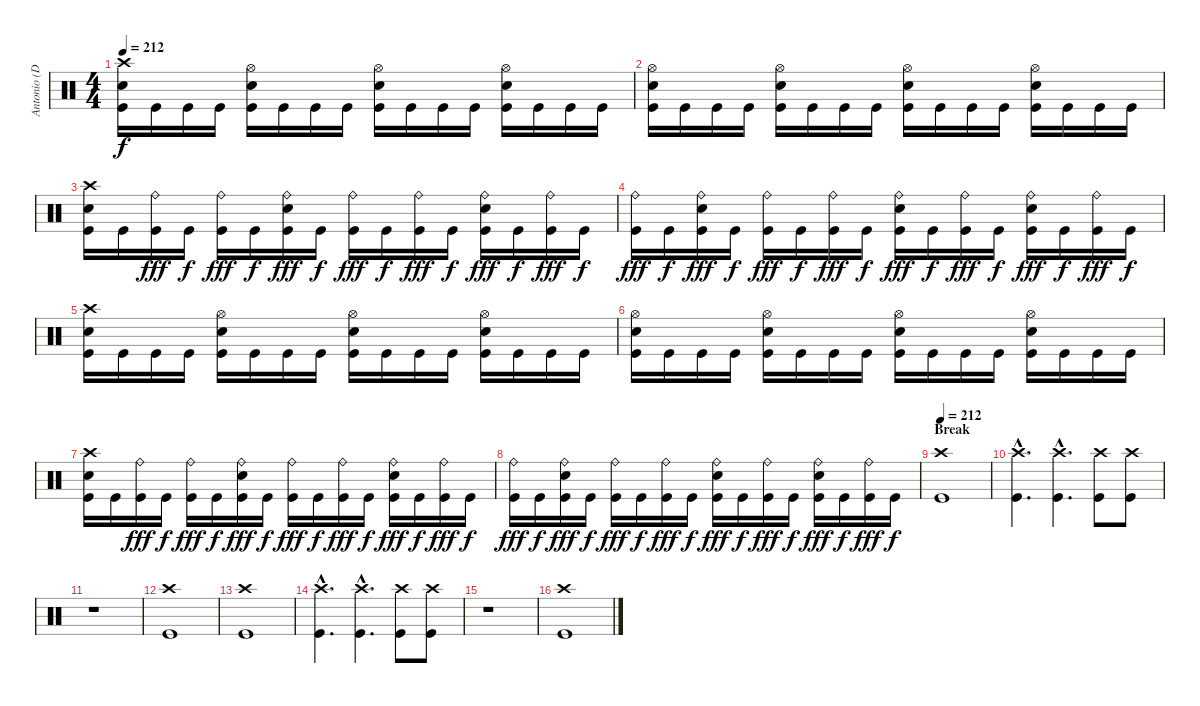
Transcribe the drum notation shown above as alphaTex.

\track ("Antonio (Drums)" "Antonio (D") {instrument percussion}
\staff {score}
\articulation defaults
\ts (4 4)
\tempo 212
\clef neutral
\ks c
("Crash high (hit)" "Electric Snare (hit)" "Kick (hit)").16{dy f} "Kick (hit)".16 "Kick (hit)".16 "Kick (hit)".16 ("Hi-Hat (open)" "Electric Snare (hit)" "Kick (hit)").16 "Kick (hit)".16 "Kick (hit)".16 "Kick (hit)".16 ("Hi-Hat (open)" "Electric Snare (hit)" "Kick (hit)").16 "Kick (hit)".16 "Kick (hit)".16 "Kick (hit)".16 ("Hi-Hat (open)" "Electric Snare (hit)" "Kick (hit)").16 "Kick (hit)".16 "Kick (hit)".16 "Kick (hit)".16 |
("Hi-Hat (open)" "Electric Snare (hit)" "Kick (hit)").16 "Kick (hit)".16 "Kick (hit)".16 "Kick (hit)".16 ("Hi-Hat (open)" "Electric Snare (hit)" "Kick (hit)").16 "Kick (hit)".16 "Kick (hit)".16 "Kick (hit)".16 ("Hi-Hat (open)" "Electric Snare (hit)" "Kick (hit)").16 "Kick (hit)".16 "Kick (hit)".16 "Kick (hit)".16 ("Hi-Hat (open)" "Electric Snare (hit)" "Kick (hit)").16 "Kick (hit)".16 "Kick (hit)".16 "Kick (hit)".16 |
("Crash high (hit)" "Electric Snare (hit)" "Kick (hit)").16 "Kick (hit)".16 ("Ride (bell)" "Kick (hit)").16{dy fff} "Kick (hit)".16{dy f} ("Ride (bell)" "Kick (hit)").16{dy fff} "Kick (hit)".16{dy f} ("Ride (bell)" "Electric Snare (hit)" "Kick (hit)").16{dy fff} "Kick (hit)".16{dy f} ("Ride (bell)" "Kick (hit)").16{dy fff} "Kick (hit)".16{dy f} ("Ride (bell)" "Kick (hit)").16{dy fff} "Kick (hit)".16{dy f} ("Ride (bell)" "Electric Snare (hit)" "Kick (hit)").16{dy fff} "Kick (hit)".16{dy f} ("Ride (bell)" "Kick (hit)").16{dy fff} "Kick (hit)".16{dy f} |
("Ride (bell)" "Kick (hit)").16{dy fff} "Kick (hit)".16{dy f} ("Ride (bell)" "Electric Snare (hit)" "Kick (hit)").16{dy fff} "Kick (hit)".16{dy f} ("Ride (bell)" "Kick (hit)").16{dy fff} "Kick (hit)".16{dy f} ("Ride (bell)" "Kick (hit)").16{dy fff} "Kick (hit)".16{dy f} ("Ride (bell)" "Electric Snare (hit)" "Kick (hit)").16{dy fff} "Kick (hit)".16{dy f} ("Ride (bell)" "Kick (hit)").16{dy fff} "Kick (hit)".16{dy f} ("Ride (bell)" "Electric Snare (hit)" "Kick (hit)").16{dy fff} "Kick (hit)".16{dy f} ("Ride (bell)" "Kick (hit)").16{dy fff} "Kick (hit)".16{dy f} |
("Crash high (hit)" "Electric Snare (hit)" "Kick (hit)").16 "Kick (hit)".16 "Kick (hit)".16 "Kick (hit)".16 ("Hi-Hat (open)" "Electric Snare (hit)" "Kick (hit)").16 "Kick (hit)".16 "Kick (hit)".16 "Kick (hit)".16 ("Hi-Hat (open)" "Electric Snare (hit)" "Kick (hit)").16 "Kick (hit)".16 "Kick (hit)".16 "Kick (hit)".16 ("Hi-Hat (open)" "Electric Snare (hit)" "Kick (hit)").16 "Kick (hit)".16 "Kick (hit)".16 "Kick (hit)".16 |
("Hi-Hat (open)" "Electric Snare (hit)" "Kick (hit)").16 "Kick (hit)".16 "Kick (hit)".16 "Kick (hit)".16 ("Hi-Hat (open)" "Electric Snare (hit)" "Kick (hit)").16 "Kick (hit)".16 "Kick (hit)".16 "Kick (hit)".16 ("Hi-Hat (open)" "Electric Snare (hit)" "Kick (hit)").16 "Kick (hit)".16 "Kick (hit)".16 "Kick (hit)".16 ("Hi-Hat (open)" "Electric Snare (hit)" "Kick (hit)").16 "Kick (hit)".16 "Kick (hit)".16 "Kick (hit)".16 |
("Crash high (hit)" "Electric Snare (hit)" "Kick (hit)").16 "Kick (hit)".16 ("Ride (bell)" "Kick (hit)").16{dy fff} "Kick (hit)".16{dy f} ("Ride (bell)" "Kick (hit)").16{dy fff} "Kick (hit)".16{dy f} ("Ride (bell)" "Electric Snare (hit)" "Kick (hit)").16{dy fff} "Kick (hit)".16{dy f} ("Ride (bell)" "Kick (hit)").16{dy fff} "Kick (hit)".16{dy f} ("Ride (bell)" "Kick (hit)").16{dy fff} "Kick (hit)".16{dy f} ("Ride (bell)" "Electric Snare (hit)" "Kick (hit)").16{dy fff} "Kick (hit)".16{dy f} ("Ride (bell)" "Kick (hit)").16{dy fff} "Kick (hit)".16{dy f} |
("Ride (bell)" "Kick (hit)").16{dy fff} "Kick (hit)".16{dy f} ("Ride (bell)" "Electric Snare (hit)" "Kick (hit)").16{dy fff} "Kick (hit)".16{dy f} ("Ride (bell)" "Kick (hit)").16{dy fff} "Kick (hit)".16{dy f} ("Ride (bell)" "Kick (hit)").16{dy fff} "Kick (hit)".16{dy f} ("Ride (bell)" "Electric Snare (hit)" "Kick (hit)").16{dy fff} "Kick (hit)".16{dy f} ("Ride (bell)" "Kick (hit)").16{dy fff} "Kick (hit)".16{dy f} ("Ride (bell)" "Electric Snare (hit)" "Kick (hit)").16{dy fff} "Kick (hit)".16{dy f} ("Ride (bell)" "Kick (hit)").16{dy fff} "Kick (hit)".16{dy f} |
\section ("" "Break")
\tempo 212
("Crash high (hit)" "Kick (hit)").1 |
("Crash high (hit)"{hac} "Kick (hit)"{hac}).4{d} ("Crash high (hit)"{hac} "Kick (hit)"{hac}).4{d} ("Crash high (hit)" "Kick (hit)").8 ("Crash high (hit)" "Kick (hit)").8 |
r.1 |
("Crash high (hit)" "Kick (hit)").1 |
("Crash high (hit)" "Kick (hit)").1 |
("Crash high (hit)"{hac} "Kick (hit)"{hac}).4{d} ("Crash high (hit)"{hac} "Kick (hit)"{hac}).4{d} ("Crash high (hit)" "Kick (hit)").8 ("Crash high (hit)" "Kick (hit)").8 |
r.1 |
("Crash high (hit)" "Kick (hit)").1
